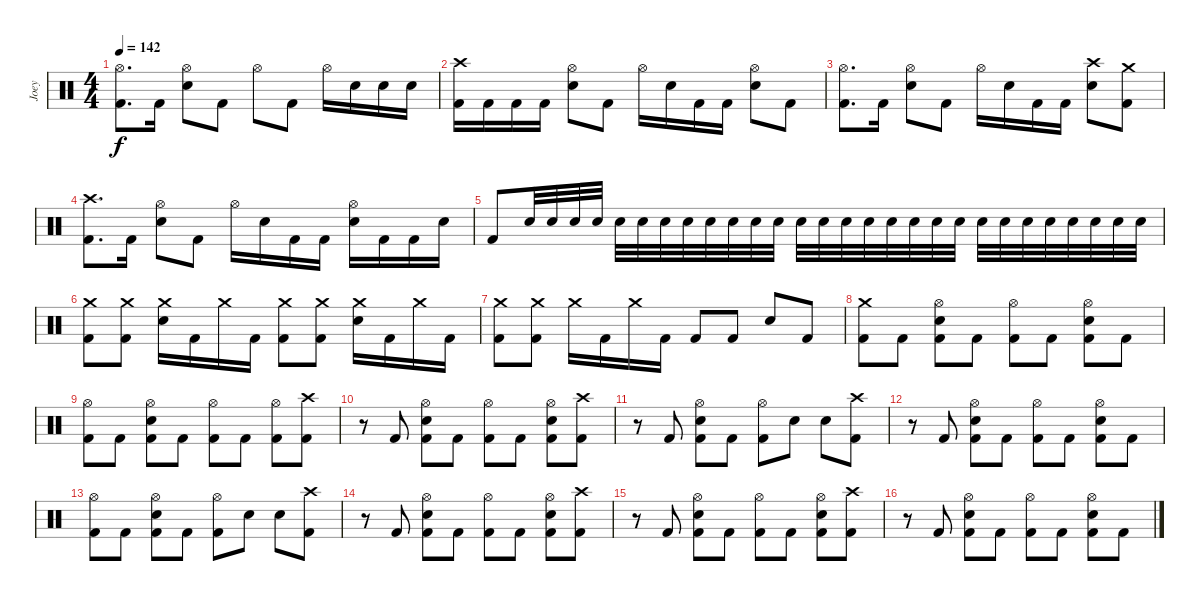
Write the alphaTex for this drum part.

\track ("Joey" "Joey") {instrument percussion}
\staff {score}
\articulation defaults
\ts (4 4)
\tempo 142
\clef neutral
\ks c
("Hi-Hat (open)" "Kick (hit) 2").8{d dy f} "Kick (hit) 2".16 ("Hi-Hat (open)" "Electric Snare (hit)").8 "Kick (hit) 2".8 "Hi-Hat (open)".8 "Kick (hit) 2".8 "Hi-Hat (open)".16 "Electric Snare (hit)".16 "Electric Snare (hit)".16 "Electric Snare (hit)".16 |
("Crash high (hit)" "Kick (hit) 2").16 "Kick (hit) 2".16 "Kick (hit) 2".16 "Kick (hit) 2".16 ("Hi-Hat (open)" "Electric Snare (hit)").8 "Kick (hit) 2".8 "Hi-Hat (open)".16 "Electric Snare (hit)".16 "Kick (hit) 2".16 "Kick (hit) 2".16 ("Hi-Hat (open)" "Electric Snare (hit)").8 "Kick (hit) 2".8 |
("Hi-Hat (open)" "Kick (hit) 2").8{d} "Kick (hit) 2".16 ("Hi-Hat (open)" "Electric Snare (hit)").8 "Kick (hit) 2".8 "Hi-Hat (open)".16 "Electric Snare (hit)".16 "Kick (hit) 2".16 "Kick (hit) 2".16 ("Crash high (hit)" "Electric Snare (hit)").8 ("Crash medium (hit)" "Kick (hit) 2").8 |
("Crash high (hit)" "Kick (hit) 2").8{d} "Kick (hit) 2".16 ("Hi-Hat (open)" "Electric Snare (hit)").8 "Kick (hit) 2".8 "Hi-Hat (open)".16 "Electric Snare (hit)".16 "Kick (hit) 2".16 "Kick (hit) 2".16 ("Hi-Hat (open)" "Electric Snare (hit)").16 "Kick (hit) 2".16 "Kick (hit) 2".16 "Electric Snare (hit)".16 |
"Kick (hit) 2".8 "Electric Snare (hit)".32 "Electric Snare (hit)".32 "Electric Snare (hit)".32 "Electric Snare (hit)".32 "Electric Snare (hit)".32 "Electric Snare (hit)".32 "Electric Snare (hit)".32 "Electric Snare (hit)".32 "Electric Snare (hit)".32 "Electric Snare (hit)".32 "Electric Snare (hit)".32 "Electric Snare (hit)".32 "Electric Snare (hit)".32 "Electric Snare (hit)".32 "Electric Snare (hit)".32 "Electric Snare (hit)".32 "Electric Snare (hit)".32 "Electric Snare (hit)".32 "Electric Snare (hit)".32 "Electric Snare (hit)".32 "Electric Snare (hit)".32 "Electric Snare (hit)".32 "Electric Snare (hit)".32 "Electric Snare (hit)".32 "Electric Snare (hit)".32 "Electric Snare (hit)".32 "Electric Snare (hit)".32 "Electric Snare (hit)".32 |
("Crash medium (hit)" "Kick (hit) 2").8 ("Crash medium (hit)" "Kick (hit) 2").8 ("Crash medium (hit)" "Electric Snare (hit)").16 "Kick (hit) 2".16 "Crash medium (hit)".16 "Kick (hit) 2".16 ("Crash medium (hit)" "Kick (hit) 2").8 ("Crash medium (hit)" "Kick (hit) 2").8 ("Crash medium (hit)" "Electric Snare (hit)").16 "Kick (hit) 2".16 "Crash medium (hit)".16 "Kick (hit) 2".16 |
("Crash medium (hit)" "Kick (hit) 2").8 ("Crash medium (hit)" "Kick (hit) 2").8 "Crash medium (hit)".16 "Kick (hit) 2".16 "Crash medium (hit)".16 "Kick (hit) 2".16 "Kick (hit) 2".8 "Kick (hit) 2".8 "Electric Snare (hit)".8 "Kick (hit) 2".8 |
("Crash medium (hit)" "Kick (hit) 2").8 "Kick (hit) 2".8 ("Hi-Hat (open)" "Electric Snare (hit)" "Kick (hit) 2").8 "Kick (hit) 2".8 ("Hi-Hat (open)" "Kick (hit) 2").8 "Kick (hit) 2".8 ("Hi-Hat (open)" "Electric Snare (hit)" "Kick (hit) 2").8 "Kick (hit) 2".8 |
("Hi-Hat (open)" "Kick (hit) 2").8 "Kick (hit) 2".8 ("Hi-Hat (open)" "Electric Snare (hit)" "Kick (hit) 2").8 "Kick (hit) 2".8 ("Hi-Hat (open)" "Kick (hit) 2").8 "Kick (hit) 2".8 ("Hi-Hat (open)" "Kick (hit) 2").8 ("Crash high (hit)" "Kick (hit) 2").8 |
r.8 "Kick (hit) 2".8 ("Hi-Hat (open)" "Electric Snare (hit)" "Kick (hit) 2").8 "Kick (hit) 2".8 ("Hi-Hat (open)" "Kick (hit) 2").8 "Kick (hit) 2".8 ("Hi-Hat (open)" "Electric Snare (hit)" "Kick (hit) 2").8 ("Crash high (hit)" "Kick (hit) 2").8 |
r.8 "Kick (hit) 2".8 ("Hi-Hat (open)" "Electric Snare (hit)" "Kick (hit) 2").8 "Kick (hit) 2".8 ("Hi-Hat (open)" "Kick (hit) 2").8 "Electric Snare (hit)".8 "Electric Snare (hit)".8 ("Crash high (hit)" "Kick (hit) 2").8 |
r.8 "Kick (hit) 2".8 ("Hi-Hat (open)" "Electric Snare (hit)" "Kick (hit) 2").8 "Kick (hit) 2".8 ("Hi-Hat (open)" "Kick (hit) 2").8 "Kick (hit) 2".8 ("Hi-Hat (open)" "Electric Snare (hit)" "Kick (hit) 2").8 "Kick (hit) 2".8 |
("Hi-Hat (open)" "Kick (hit) 2").8 "Kick (hit) 2".8 ("Hi-Hat (open)" "Electric Snare (hit)" "Kick (hit) 2").8 "Kick (hit) 2".8 ("Hi-Hat (open)" "Kick (hit) 2").8 "Electric Snare (hit)".8 "Electric Snare (hit)".8 ("Crash high (hit)" "Kick (hit) 2").8 |
r.8 "Kick (hit) 2".8 ("Hi-Hat (open)" "Electric Snare (hit)" "Kick (hit) 2").8 "Kick (hit) 2".8 ("Hi-Hat (open)" "Kick (hit) 2").8 "Kick (hit) 2".8 ("Hi-Hat (open)" "Electric Snare (hit)" "Kick (hit) 2").8 ("Crash high (hit)" "Kick (hit) 2").8 |
r.8 "Kick (hit) 2".8 ("Hi-Hat (open)" "Electric Snare (hit)" "Kick (hit) 2").8 "Kick (hit) 2".8 ("Hi-Hat (open)" "Kick (hit) 2").8 "Kick (hit) 2".8 ("Hi-Hat (open)" "Electric Snare (hit)" "Kick (hit) 2").8 ("Crash high (hit)" "Kick (hit) 2").8 |
r.8 "Kick (hit) 2".8 ("Hi-Hat (open)" "Electric Snare (hit)" "Kick (hit) 2").8 "Kick (hit) 2".8 ("Hi-Hat (open)" "Kick (hit) 2").8 "Kick (hit) 2".8 ("Hi-Hat (open)" "Electric Snare (hit)" "Kick (hit) 2").8 "Kick (hit) 2".8
